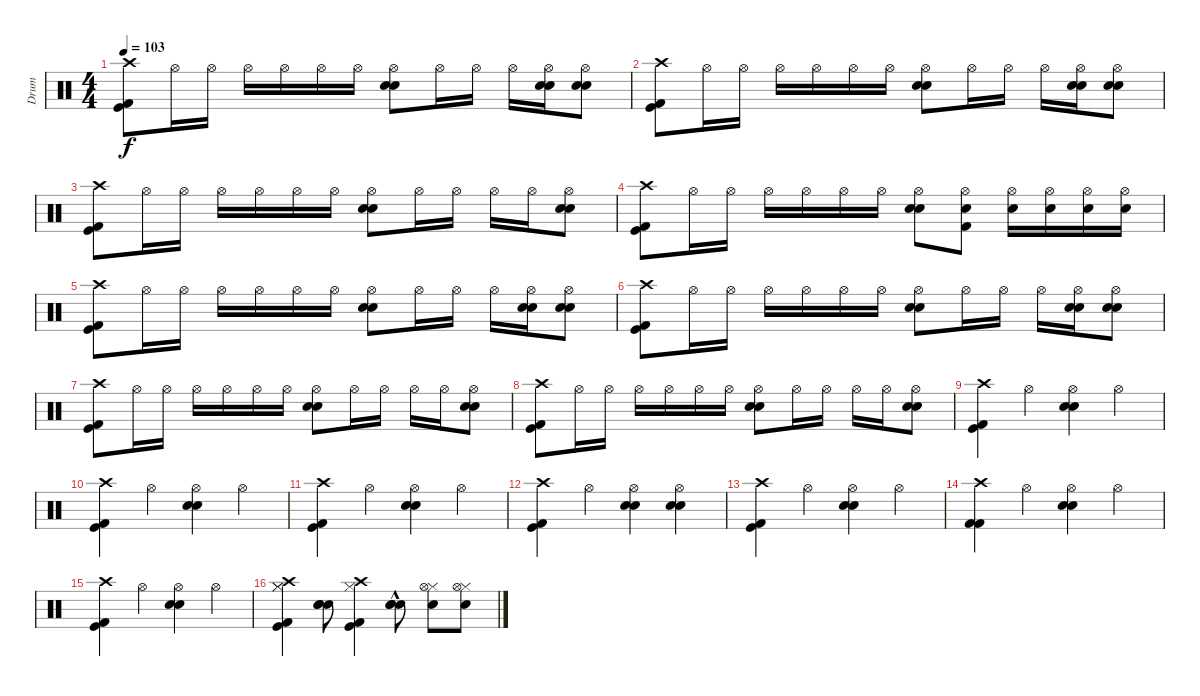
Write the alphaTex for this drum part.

\track ("Drum" "Drum") {instrument percussion}
\staff {score}
\articulation defaults
\ts (4 4)
\tempo 103
\clef neutral
\ks c
("Kick (hit)" "Kick (hit) 2" "Crash high (hit)").8{dy f} "Hi-Hat (open)".16 "Hi-Hat (open)".16 "Hi-Hat (open)".16 "Hi-Hat (open)".16 "Hi-Hat (open)".16 "Hi-Hat (open)".16 ("Hi-Hat (open)" "Electric Snare (hit)" "Snare (hit) 2").8 "Hi-Hat (open)".16 "Hi-Hat (open)".16 "Hi-Hat (open)".16 ("Hi-Hat (open)" "Electric Snare (hit)" "Snare (hit) 2").16 ("Hi-Hat (open)" "Electric Snare (hit)" "Snare (hit) 2").8 |
("Kick (hit)" "Kick (hit) 2" "Crash high (hit)").8 "Hi-Hat (open)".16 "Hi-Hat (open)".16 "Hi-Hat (open)".16 "Hi-Hat (open)".16 "Hi-Hat (open)".16 "Hi-Hat (open)".16 ("Hi-Hat (open)" "Electric Snare (hit)" "Snare (hit) 2").8 "Hi-Hat (open)".16 "Hi-Hat (open)".16 "Hi-Hat (open)".16 ("Hi-Hat (open)" "Electric Snare (hit)" "Snare (hit) 2").16 ("Hi-Hat (open)" "Electric Snare (hit)" "Snare (hit) 2").8 |
("Kick (hit)" "Kick (hit) 2" "Crash high (hit)").8 "Hi-Hat (open)".16 "Hi-Hat (open)".16 "Hi-Hat (open)".16 "Hi-Hat (open)".16 "Hi-Hat (open)".16 "Hi-Hat (open)".16 ("Hi-Hat (open)" "Electric Snare (hit)" "Snare (hit) 2").8 "Hi-Hat (open)".16 "Hi-Hat (open)".16 "Hi-Hat (open)".16 "Hi-Hat (open)".16 ("Hi-Hat (open)" "Electric Snare (hit)" "Snare (hit) 2").8 |
("Kick (hit)" "Kick (hit) 2" "Crash high (hit)").8 "Hi-Hat (open)".16 "Hi-Hat (open)".16 "Hi-Hat (open)".16 "Hi-Hat (open)".16 "Hi-Hat (open)".16 "Hi-Hat (open)".16 ("Hi-Hat (open)" "Electric Snare (hit)" "Snare (hit) 2").8 ("Hi-Hat (open)" "Kick (hit) 2" "Snare (hit) 2").8 ("Hi-Hat (open)" "Snare (hit) 2").16 ("Hi-Hat (open)" "Snare (hit) 2").16 ("Hi-Hat (open)" "Snare (hit) 2").16 ("Hi-Hat (open)" "Snare (hit) 2").16 |
("Kick (hit)" "Kick (hit) 2" "Crash high (hit)").8 "Hi-Hat (open)".16 "Hi-Hat (open)".16 "Hi-Hat (open)".16 "Hi-Hat (open)".16 "Hi-Hat (open)".16 "Hi-Hat (open)".16 ("Hi-Hat (open)" "Electric Snare (hit)" "Snare (hit) 2").8 "Hi-Hat (open)".16 "Hi-Hat (open)".16 "Hi-Hat (open)".16 ("Hi-Hat (open)" "Electric Snare (hit)" "Snare (hit) 2").16 ("Hi-Hat (open)" "Electric Snare (hit)" "Snare (hit) 2").8 |
("Kick (hit)" "Kick (hit) 2" "Crash high (hit)").8 "Hi-Hat (open)".16 "Hi-Hat (open)".16 "Hi-Hat (open)".16 "Hi-Hat (open)".16 "Hi-Hat (open)".16 "Hi-Hat (open)".16 ("Hi-Hat (open)" "Electric Snare (hit)" "Snare (hit) 2").8 "Hi-Hat (open)".16 "Hi-Hat (open)".16 "Hi-Hat (open)".16 ("Hi-Hat (open)" "Electric Snare (hit)" "Snare (hit) 2").16 ("Hi-Hat (open)" "Electric Snare (hit)" "Snare (hit) 2").8 |
("Kick (hit)" "Kick (hit) 2" "Crash high (hit)").8 "Hi-Hat (open)".16 "Hi-Hat (open)".16 "Hi-Hat (open)".16 "Hi-Hat (open)".16 "Hi-Hat (open)".16 "Hi-Hat (open)".16 ("Hi-Hat (open)" "Electric Snare (hit)" "Snare (hit) 2").8 "Hi-Hat (open)".16 "Hi-Hat (open)".16 "Hi-Hat (open)".16 "Hi-Hat (open)".16 ("Hi-Hat (open)" "Electric Snare (hit)" "Snare (hit) 2").8 |
("Kick (hit)" "Kick (hit) 2" "Crash high (hit)").8 "Hi-Hat (open)".16 "Hi-Hat (open)".16 "Hi-Hat (open)".16 "Hi-Hat (open)".16 "Hi-Hat (open)".16 "Hi-Hat (open)".16 ("Hi-Hat (open)" "Electric Snare (hit)" "Snare (hit) 2").8 "Hi-Hat (open)".16 "Hi-Hat (open)".16 "Hi-Hat (open)".16 "Hi-Hat (open)".16 ("Hi-Hat (open)" "Electric Snare (hit)" "Snare (hit) 2").8 |
("Kick (hit)" "Kick (hit) 2" "Crash high (hit)").4 "Hi-Hat (open)".4 ("Hi-Hat (open)" "Electric Snare (hit)" "Snare (hit) 2").4 "Hi-Hat (open)".4 |
("Kick (hit)" "Kick (hit) 2" "Crash high (hit)").4 "Hi-Hat (open)".4 ("Hi-Hat (open)" "Electric Snare (hit)" "Snare (hit) 2").4 "Hi-Hat (open)".4 |
("Kick (hit)" "Kick (hit) 2" "Crash high (hit)").4 "Hi-Hat (open)".4 ("Hi-Hat (open)" "Electric Snare (hit)" "Snare (hit) 2").4 "Hi-Hat (open)".4 |
("Kick (hit)" "Kick (hit) 2" "Crash high (hit)").4 "Hi-Hat (open)".4 ("Hi-Hat (open)" "Electric Snare (hit)" "Snare (hit) 2").4 ("Hi-Hat (open)" "Electric Snare (hit)" "Snare (hit) 2").4 |
("Kick (hit)" "Kick (hit) 2" "Crash high (hit)").4 "Hi-Hat (open)".4 ("Hi-Hat (open)" "Electric Snare (hit)" "Snare (hit) 2").4 "Hi-Hat (open)".4 |
("Kick (hit) 2" "Kick (hit) 2" "Crash high (hit)").4 "Hi-Hat (open)".4 ("Hi-Hat (open)" "Electric Snare (hit)" "Snare (hit) 2").4 "Hi-Hat (open)".4 |
("Kick (hit)" "Kick (hit) 2" "Crash high (hit)").4 "Hi-Hat (open)".4 ("Hi-Hat (open)" "Electric Snare (hit)" "Snare (hit) 2").4 "Hi-Hat (open)".4 |
("Hi-Hat (closed)" "Kick (hit)" "Kick (hit) 2" "Crash high (hit)" "Hi-Hat (closed)").4 ("Snare (hit) 2" "Electric Snare (hit)" "Electric Snare (hit)").8 ("Kick (hit)" "Kick (hit) 2" "Crash high (hit)" "Hi-Hat (closed)").4 ("Snare (hit) 2"{hac} "Electric Snare (hit)" "Electric Snare (hit)").8 ("Snare (hit) 2" "Hi-Hat (closed)" "Hi-Hat (open)").8 ("Snare (hit) 2" "Hi-Hat (closed)" "Hi-Hat (open)").8
